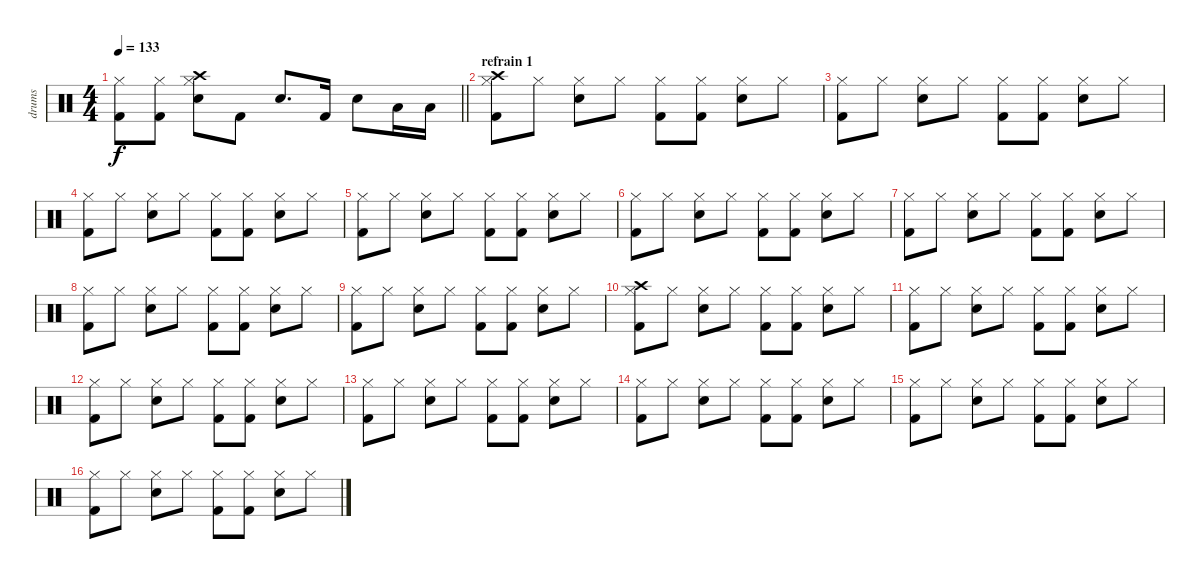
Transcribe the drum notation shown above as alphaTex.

\track ("drums" "drums") {instrument percussion}
\staff {score}
\articulation defaults
\ts (4 4)
\tempo 133
\clef neutral
\barLineRight lightlight
\ks c
("Hi-Hat (closed)" "Kick (hit) 2").8{dy f} ("Hi-Hat (closed)" "Kick (hit) 2").8 ("Crash high (hit)" "Hi-Hat (closed)" "Snare (hit) 2").8 "Kick (hit) 2".8 "Snare (hit) 2".8{d} "Kick (hit) 2".16 "Snare (hit) 2".8 "Low Tom (hit)".16 "Low Tom (hit)".16 |
\section ("" "refrain 1")
("Crash high (hit)" "Hi-Hat (closed)" "Kick (hit) 2").8 "Hi-Hat (closed)".8 ("Hi-Hat (closed)" "Snare (hit) 2").8 "Hi-Hat (closed)".8 ("Hi-Hat (closed)" "Kick (hit) 2").8 ("Hi-Hat (closed)" "Kick (hit) 2").8 ("Hi-Hat (closed)" "Snare (hit) 2").8 "Hi-Hat (closed)".8 |
("Hi-Hat (closed)" "Kick (hit) 2").8 "Hi-Hat (closed)".8 ("Hi-Hat (closed)" "Snare (hit) 2").8 "Hi-Hat (closed)".8 ("Hi-Hat (closed)" "Kick (hit) 2").8 ("Hi-Hat (closed)" "Kick (hit) 2").8 ("Hi-Hat (closed)" "Snare (hit) 2").8 "Hi-Hat (closed)".8 |
("Hi-Hat (closed)" "Kick (hit) 2").8 "Hi-Hat (closed)".8 ("Hi-Hat (closed)" "Snare (hit) 2").8 "Hi-Hat (closed)".8 ("Hi-Hat (closed)" "Kick (hit) 2").8 ("Hi-Hat (closed)" "Kick (hit) 2").8 ("Hi-Hat (closed)" "Snare (hit) 2").8 "Hi-Hat (closed)".8 |
("Hi-Hat (closed)" "Kick (hit) 2").8 "Hi-Hat (closed)".8 ("Hi-Hat (closed)" "Snare (hit) 2").8 "Hi-Hat (closed)".8 ("Hi-Hat (closed)" "Kick (hit) 2").8 ("Hi-Hat (closed)" "Kick (hit) 2").8 ("Hi-Hat (closed)" "Snare (hit) 2").8 "Hi-Hat (closed)".8 |
("Hi-Hat (closed)" "Kick (hit) 2").8 "Hi-Hat (closed)".8 ("Hi-Hat (closed)" "Snare (hit) 2").8 "Hi-Hat (closed)".8 ("Hi-Hat (closed)" "Kick (hit) 2").8 ("Hi-Hat (closed)" "Kick (hit) 2").8 ("Hi-Hat (closed)" "Snare (hit) 2").8 "Hi-Hat (closed)".8 |
("Hi-Hat (closed)" "Kick (hit) 2").8 "Hi-Hat (closed)".8 ("Hi-Hat (closed)" "Snare (hit) 2").8 "Hi-Hat (closed)".8 ("Hi-Hat (closed)" "Kick (hit) 2").8 ("Hi-Hat (closed)" "Kick (hit) 2").8 ("Hi-Hat (closed)" "Snare (hit) 2").8 "Hi-Hat (closed)".8 |
("Hi-Hat (closed)" "Kick (hit) 2").8 "Hi-Hat (closed)".8 ("Hi-Hat (closed)" "Snare (hit) 2").8 "Hi-Hat (closed)".8 ("Hi-Hat (closed)" "Kick (hit) 2").8 ("Hi-Hat (closed)" "Kick (hit) 2").8 ("Hi-Hat (closed)" "Snare (hit) 2").8 "Hi-Hat (closed)".8 |
("Hi-Hat (closed)" "Kick (hit) 2").8 "Hi-Hat (closed)".8 ("Hi-Hat (closed)" "Snare (hit) 2").8 "Hi-Hat (closed)".8 ("Hi-Hat (closed)" "Kick (hit) 2").8 ("Hi-Hat (closed)" "Kick (hit) 2").8 ("Hi-Hat (closed)" "Snare (hit) 2").8 "Hi-Hat (closed)".8 |
("Crash high (hit)" "Hi-Hat (closed)" "Kick (hit) 2").8 "Hi-Hat (closed)".8 ("Hi-Hat (closed)" "Snare (hit) 2").8 "Hi-Hat (closed)".8 ("Hi-Hat (closed)" "Kick (hit) 2").8 ("Hi-Hat (closed)" "Kick (hit) 2").8 ("Hi-Hat (closed)" "Snare (hit) 2").8 "Hi-Hat (closed)".8 |
("Hi-Hat (closed)" "Kick (hit) 2").8 "Hi-Hat (closed)".8 ("Hi-Hat (closed)" "Snare (hit) 2").8 "Hi-Hat (closed)".8 ("Hi-Hat (closed)" "Kick (hit) 2").8 ("Hi-Hat (closed)" "Kick (hit) 2").8 ("Hi-Hat (closed)" "Snare (hit) 2").8 "Hi-Hat (closed)".8 |
("Hi-Hat (closed)" "Kick (hit) 2").8 "Hi-Hat (closed)".8 ("Hi-Hat (closed)" "Snare (hit) 2").8 "Hi-Hat (closed)".8 ("Hi-Hat (closed)" "Kick (hit) 2").8 ("Hi-Hat (closed)" "Kick (hit) 2").8 ("Hi-Hat (closed)" "Snare (hit) 2").8 "Hi-Hat (closed)".8 |
("Hi-Hat (closed)" "Kick (hit) 2").8 "Hi-Hat (closed)".8 ("Hi-Hat (closed)" "Snare (hit) 2").8 "Hi-Hat (closed)".8 ("Hi-Hat (closed)" "Kick (hit) 2").8 ("Hi-Hat (closed)" "Kick (hit) 2").8 ("Hi-Hat (closed)" "Snare (hit) 2").8 "Hi-Hat (closed)".8 |
("Hi-Hat (closed)" "Kick (hit) 2").8 "Hi-Hat (closed)".8 ("Hi-Hat (closed)" "Snare (hit) 2").8 "Hi-Hat (closed)".8 ("Hi-Hat (closed)" "Kick (hit) 2").8 ("Hi-Hat (closed)" "Kick (hit) 2").8 ("Hi-Hat (closed)" "Snare (hit) 2").8 "Hi-Hat (closed)".8 |
("Hi-Hat (closed)" "Kick (hit) 2").8 "Hi-Hat (closed)".8 ("Hi-Hat (closed)" "Snare (hit) 2").8 "Hi-Hat (closed)".8 ("Hi-Hat (closed)" "Kick (hit) 2").8 ("Hi-Hat (closed)" "Kick (hit) 2").8 ("Hi-Hat (closed)" "Snare (hit) 2").8 "Hi-Hat (closed)".8 |
("Hi-Hat (closed)" "Kick (hit) 2").8 "Hi-Hat (closed)".8 ("Hi-Hat (closed)" "Snare (hit) 2").8 "Hi-Hat (closed)".8 ("Hi-Hat (closed)" "Kick (hit) 2").8 ("Hi-Hat (closed)" "Kick (hit) 2").8 ("Hi-Hat (closed)" "Snare (hit) 2").8 "Hi-Hat (closed)".8
